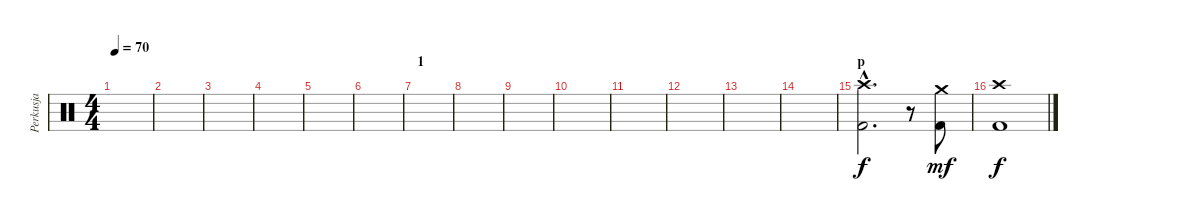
\track ("Perkusja" "Perkusja") {instrument percussion}
\staff {score}
\articulation defaults
\ts (4 4)
\tempo 70
\clef neutral
\ks c
|
|
|
|
|
|
\section ("" "1")
|
|
|
|
|
|
|
|
\section ("" "p")
("Crash high (hit)"{hac} "Kick (hit) 2"{hac}).2{d} r.8 ("Crash medium (hit)" "Kick (hit) 2").8{dy mf} |
("Crash high (hit)" "Kick (hit) 2").1{dy f}
